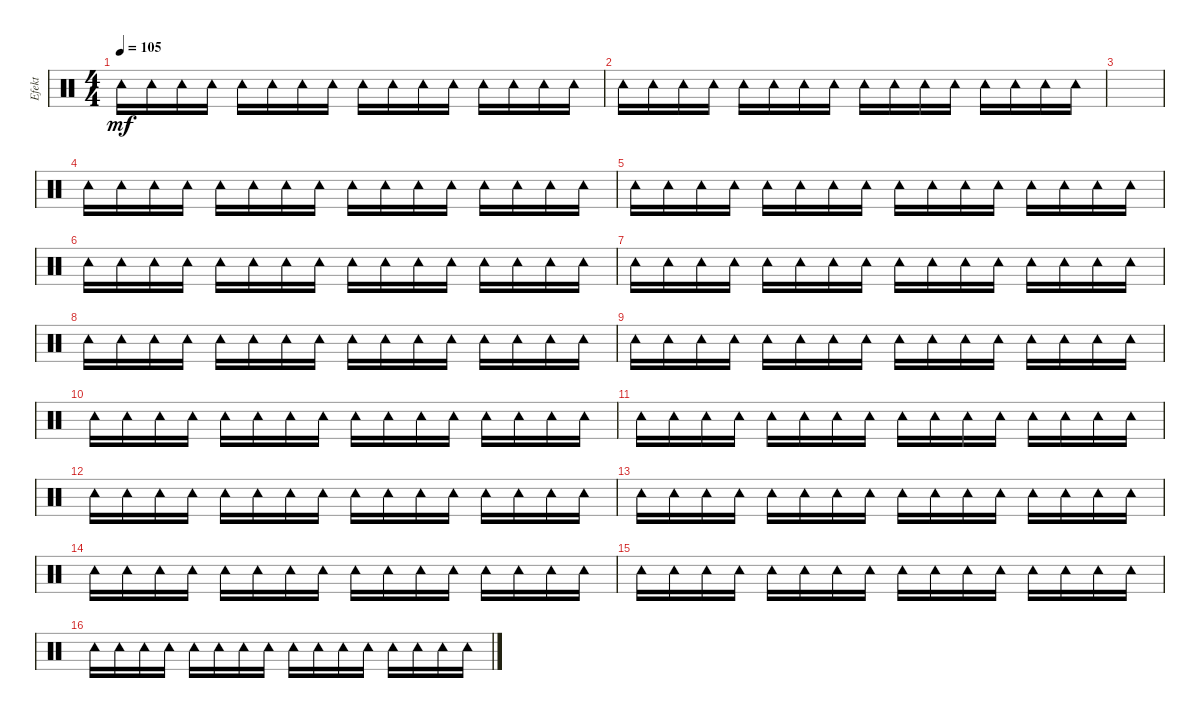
\track ("Efekt" "Efekt") {instrument percussion}
\staff {score}
\articulation defaults
\ts (4 4)
\tempo 105
\clef neutral
\ks c "Tambourine (hit)".16{dy mf} "Tambourine (hit)".16 "Tambourine (hit)".16 "Tambourine (hit)".16 "Tambourine (hit)".16 "Tambourine (hit)".16 "Tambourine (hit)".16 "Tambourine (hit)".16 "Tambourine (hit)".16 "Tambourine (hit)".16 "Tambourine (hit)".16 "Tambourine (hit)".16 "Tambourine (hit)".16 "Tambourine (hit)".16 "Tambourine (hit)".16 "Tambourine (hit)".16
|
"Tambourine (hit)".16 "Tambourine (hit)".16 "Tambourine (hit)".16 "Tambourine (hit)".16 "Tambourine (hit)".16 "Tambourine (hit)".16 "Tambourine (hit)".16 "Tambourine (hit)".16 "Tambourine (hit)".16 "Tambourine (hit)".16 "Tambourine (hit)".16 "Tambourine (hit)".16 "Tambourine (hit)".16 "Tambourine (hit)".16 "Tambourine (hit)".16 "Tambourine (hit)".16 |
|
"Tambourine (hit)".16 "Tambourine (hit)".16 "Tambourine (hit)".16 "Tambourine (hit)".16 "Tambourine (hit)".16 "Tambourine (hit)".16 "Tambourine (hit)".16 "Tambourine (hit)".16 "Tambourine (hit)".16 "Tambourine (hit)".16 "Tambourine (hit)".16 "Tambourine (hit)".16 "Tambourine (hit)".16 "Tambourine (hit)".16 "Tambourine (hit)".16 "Tambourine (hit)".16 |
"Tambourine (hit)".16 "Tambourine (hit)".16 "Tambourine (hit)".16 "Tambourine (hit)".16 "Tambourine (hit)".16 "Tambourine (hit)".16 "Tambourine (hit)".16 "Tambourine (hit)".16 "Tambourine (hit)".16 "Tambourine (hit)".16 "Tambourine (hit)".16 "Tambourine (hit)".16 "Tambourine (hit)".16 "Tambourine (hit)".16 "Tambourine (hit)".16 "Tambourine (hit)".16 |
"Tambourine (hit)".16 "Tambourine (hit)".16 "Tambourine (hit)".16 "Tambourine (hit)".16 "Tambourine (hit)".16 "Tambourine (hit)".16 "Tambourine (hit)".16 "Tambourine (hit)".16 "Tambourine (hit)".16 "Tambourine (hit)".16 "Tambourine (hit)".16 "Tambourine (hit)".16 "Tambourine (hit)".16 "Tambourine (hit)".16 "Tambourine (hit)".16 "Tambourine (hit)".16 |
"Tambourine (hit)".16 "Tambourine (hit)".16 "Tambourine (hit)".16 "Tambourine (hit)".16 "Tambourine (hit)".16 "Tambourine (hit)".16 "Tambourine (hit)".16 "Tambourine (hit)".16 "Tambourine (hit)".16 "Tambourine (hit)".16 "Tambourine (hit)".16 "Tambourine (hit)".16 "Tambourine (hit)".16 "Tambourine (hit)".16 "Tambourine (hit)".16 "Tambourine (hit)".16 |
"Tambourine (hit)".16 "Tambourine (hit)".16 "Tambourine (hit)".16 "Tambourine (hit)".16 "Tambourine (hit)".16 "Tambourine (hit)".16 "Tambourine (hit)".16 "Tambourine (hit)".16 "Tambourine (hit)".16 "Tambourine (hit)".16 "Tambourine (hit)".16 "Tambourine (hit)".16 "Tambourine (hit)".16 "Tambourine (hit)".16 "Tambourine (hit)".16 "Tambourine (hit)".16 |
"Tambourine (hit)".16 "Tambourine (hit)".16 "Tambourine (hit)".16 "Tambourine (hit)".16 "Tambourine (hit)".16 "Tambourine (hit)".16 "Tambourine (hit)".16 "Tambourine (hit)".16 "Tambourine (hit)".16 "Tambourine (hit)".16 "Tambourine (hit)".16 "Tambourine (hit)".16 "Tambourine (hit)".16 "Tambourine (hit)".16 "Tambourine (hit)".16 "Tambourine (hit)".16 |
"Tambourine (hit)".16 "Tambourine (hit)".16 "Tambourine (hit)".16 "Tambourine (hit)".16 "Tambourine (hit)".16 "Tambourine (hit)".16 "Tambourine (hit)".16 "Tambourine (hit)".16 "Tambourine (hit)".16 "Tambourine (hit)".16 "Tambourine (hit)".16 "Tambourine (hit)".16 "Tambourine (hit)".16 "Tambourine (hit)".16 "Tambourine (hit)".16 "Tambourine (hit)".16 |
"Tambourine (hit)".16 "Tambourine (hit)".16 "Tambourine (hit)".16 "Tambourine (hit)".16 "Tambourine (hit)".16 "Tambourine (hit)".16 "Tambourine (hit)".16 "Tambourine (hit)".16 "Tambourine (hit)".16 "Tambourine (hit)".16 "Tambourine (hit)".16 "Tambourine (hit)".16 "Tambourine (hit)".16 "Tambourine (hit)".16 "Tambourine (hit)".16 "Tambourine (hit)".16 |
"Tambourine (hit)".16 "Tambourine (hit)".16 "Tambourine (hit)".16 "Tambourine (hit)".16 "Tambourine (hit)".16 "Tambourine (hit)".16 "Tambourine (hit)".16 "Tambourine (hit)".16 "Tambourine (hit)".16 "Tambourine (hit)".16 "Tambourine (hit)".16 "Tambourine (hit)".16 "Tambourine (hit)".16 "Tambourine (hit)".16 "Tambourine (hit)".16 "Tambourine (hit)".16 |
"Tambourine (hit)".16 "Tambourine (hit)".16 "Tambourine (hit)".16 "Tambourine (hit)".16 "Tambourine (hit)".16 "Tambourine (hit)".16 "Tambourine (hit)".16 "Tambourine (hit)".16 "Tambourine (hit)".16 "Tambourine (hit)".16 "Tambourine (hit)".16 "Tambourine (hit)".16 "Tambourine (hit)".16 "Tambourine (hit)".16 "Tambourine (hit)".16 "Tambourine (hit)".16 |
"Tambourine (hit)".16 "Tambourine (hit)".16 "Tambourine (hit)".16 "Tambourine (hit)".16 "Tambourine (hit)".16 "Tambourine (hit)".16 "Tambourine (hit)".16 "Tambourine (hit)".16 "Tambourine (hit)".16 "Tambourine (hit)".16 "Tambourine (hit)".16 "Tambourine (hit)".16 "Tambourine (hit)".16 "Tambourine (hit)".16 "Tambourine (hit)".16 "Tambourine (hit)".16 |
"Tambourine (hit)".16 "Tambourine (hit)".16 "Tambourine (hit)".16 "Tambourine (hit)".16 "Tambourine (hit)".16 "Tambourine (hit)".16 "Tambourine (hit)".16 "Tambourine (hit)".16 "Tambourine (hit)".16 "Tambourine (hit)".16 "Tambourine (hit)".16 "Tambourine (hit)".16 "Tambourine (hit)".16 "Tambourine (hit)".16 "Tambourine (hit)".16 "Tambourine (hit)".16 |
"Tambourine (hit)".16 "Tambourine (hit)".16 "Tambourine (hit)".16 "Tambourine (hit)".16 "Tambourine (hit)".16 "Tambourine (hit)".16 "Tambourine (hit)".16 "Tambourine (hit)".16 "Tambourine (hit)".16 "Tambourine (hit)".16 "Tambourine (hit)".16 "Tambourine (hit)".16 "Tambourine (hit)".16 "Tambourine (hit)".16 "Tambourine (hit)".16 "Tambourine (hit)".16
